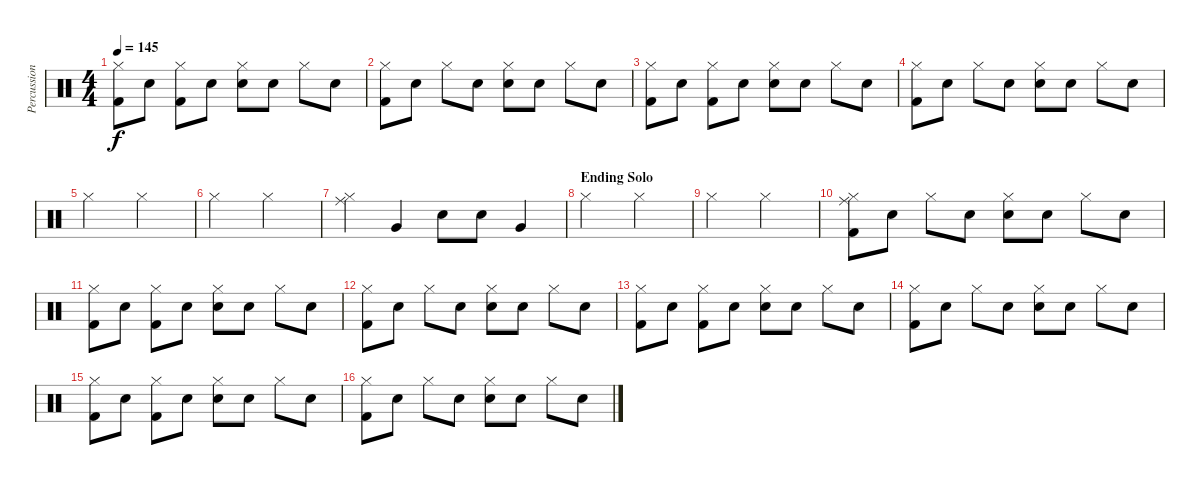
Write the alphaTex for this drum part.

\track ("Percussion" "Percussion") {instrument percussion}
\staff {score}
\articulation defaults
\ts (4 4)
\tempo 145
\clef neutral
\ks c
("Hi-Hat (closed)" "Kick (hit) 2").8{dy f} "Snare (hit)"{x}.8 ("Hi-Hat (closed)" "Kick (hit) 2").8 "Snare (hit)"{x}.8 ("Hi-Hat (closed)" "Electric Snare (hit)").8 "Snare (hit)"{x}.8 "Hi-Hat (closed)".8 "Snare (hit)"{x}.8 |
("Hi-Hat (closed)" "Kick (hit) 2").8 "Snare (hit)"{x}.8 "Hi-Hat (closed)".8 "Snare (hit)"{x}.8 ("Hi-Hat (closed)" "Electric Snare (hit)").8 "Snare (hit)"{x}.8 "Hi-Hat (closed)".8 "Snare (hit)"{x}.8 |
("Hi-Hat (closed)" "Kick (hit) 2").8 "Snare (hit)"{x}.8 ("Hi-Hat (closed)" "Kick (hit) 2").8 "Snare (hit)"{x}.8 ("Hi-Hat (closed)" "Electric Snare (hit)").8 "Snare (hit)"{x}.8 "Hi-Hat (closed)".8 "Snare (hit)"{x}.8 |
("Hi-Hat (closed)" "Kick (hit) 2").8 "Snare (hit)"{x}.8 "Hi-Hat (closed)".8 "Snare (hit)"{x}.8 ("Hi-Hat (closed)" "Electric Snare (hit)").8 "Snare (hit)"{x}.8 "Hi-Hat (closed)".8 "Snare (hit)"{x}.8 |
"Hi-Hat (closed)".2 "Hi-Hat (closed)".2 |
"Hi-Hat (closed)".2 "Hi-Hat (closed)".2 |
("Hi-Hat (closed)" "Ride (middle)").4 "Very Low Tom (hit)".4 "Electric Snare (hit)".8 "Electric Snare (hit)".8 "Very Low Tom (hit)".4 |
\section ("" "Ending Solo")
"Hi-Hat (closed)".2 "Hi-Hat (closed)".2 |
"Hi-Hat (closed)".2 "Hi-Hat (closed)".2 |
("Hi-Hat (closed)" "Ride (middle)" "Kick (hit) 2").8 "Snare (hit)"{x}.8 "Hi-Hat (closed)".8 "Snare (hit)"{x}.8 ("Hi-Hat (closed)" "Electric Snare (hit)").8 "Snare (hit)"{x}.8 "Hi-Hat (closed)".8 "Snare (hit)"{x}.8 |
("Hi-Hat (closed)" "Kick (hit) 2").8 "Snare (hit)"{x}.8 ("Hi-Hat (closed)" "Kick (hit) 2").8 "Snare (hit)"{x}.8 ("Hi-Hat (closed)" "Electric Snare (hit)").8 "Snare (hit)"{x}.8 "Hi-Hat (closed)".8 "Snare (hit)"{x}.8 |
("Hi-Hat (closed)" "Kick (hit) 2").8 "Snare (hit)"{x}.8 "Hi-Hat (closed)".8 "Snare (hit)"{x}.8 ("Hi-Hat (closed)" "Electric Snare (hit)").8 "Snare (hit)"{x}.8 "Hi-Hat (closed)".8 "Snare (hit)"{x}.8 |
("Hi-Hat (closed)" "Kick (hit) 2").8 "Snare (hit)"{x}.8 ("Hi-Hat (closed)" "Kick (hit) 2").8 "Snare (hit)"{x}.8 ("Hi-Hat (closed)" "Electric Snare (hit)").8 "Snare (hit)"{x}.8 "Hi-Hat (closed)".8 "Snare (hit)"{x}.8 |
("Hi-Hat (closed)" "Kick (hit) 2").8 "Snare (hit)"{x}.8 "Hi-Hat (closed)".8 "Snare (hit)"{x}.8 ("Hi-Hat (closed)" "Electric Snare (hit)").8 "Snare (hit)"{x}.8 "Hi-Hat (closed)".8 "Snare (hit)"{x}.8 |
("Hi-Hat (closed)" "Kick (hit) 2").8 "Snare (hit)"{x}.8 ("Hi-Hat (closed)" "Kick (hit) 2").8 "Snare (hit)"{x}.8 ("Hi-Hat (closed)" "Electric Snare (hit)").8 "Snare (hit)"{x}.8 "Hi-Hat (closed)".8 "Snare (hit)"{x}.8 |
("Hi-Hat (closed)" "Kick (hit) 2").8 "Snare (hit)"{x}.8 "Hi-Hat (closed)".8 "Snare (hit)"{x}.8 ("Hi-Hat (closed)" "Electric Snare (hit)").8 "Snare (hit)"{x}.8 "Hi-Hat (closed)".8 "Snare (hit)"{x}.8
